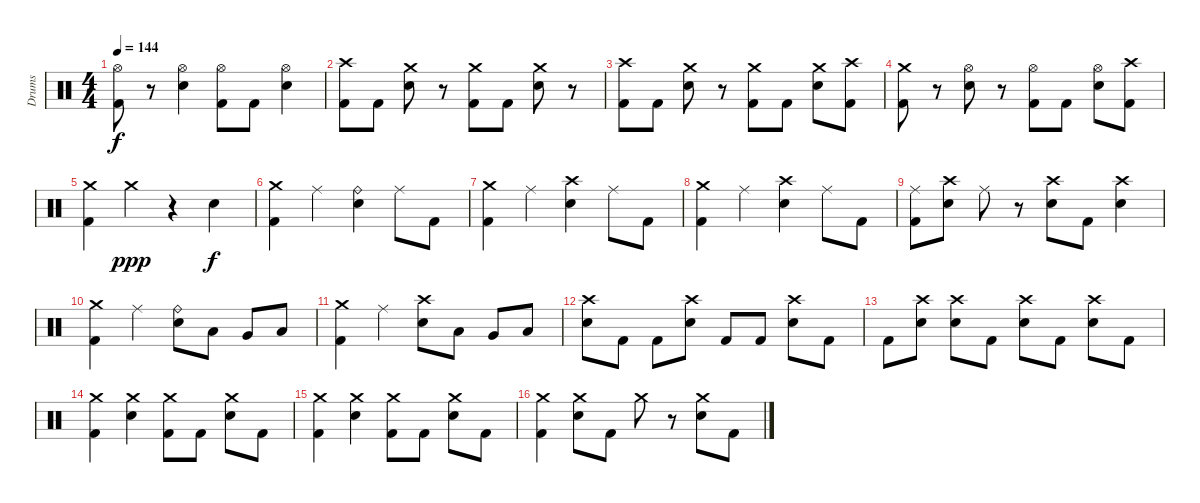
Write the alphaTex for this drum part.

\track ("Drums" "Drums") {instrument percussion}
\staff
\articulation defaults
\ts (4 4)
\tempo 144
\clef neutral
\ks c
("Hi-Hat (open)" "Kick (hit) 2").8{dy f} r.8 ("Hi-Hat (open)" "Electric Snare (hit)").4 ("Hi-Hat (open)" "Kick (hit) 2").8 "Kick (hit) 2".8 ("Hi-Hat (open)" "Electric Snare (hit)").4 |
("Crash high (hit)" "Kick (hit) 2").8 "Kick (hit) 2".8 ("Crash medium (hit)" "Electric Snare (hit)").8 r.8 ("Crash medium (hit)" "Kick (hit) 2").8 "Kick (hit) 2".8 ("Crash medium (hit)" "Electric Snare (hit)").8 r.8 |
("Crash high (hit)" "Kick (hit) 2").8 "Kick (hit) 2".8 ("Crash medium (hit)" "Electric Snare (hit)").8 r.8 ("Crash medium (hit)" "Kick (hit) 2").8 "Kick (hit) 2".8 ("Crash medium (hit)" "Electric Snare (hit)").8 ("Crash high (hit)" "Kick (hit) 2").8 |
("Crash medium (hit)" "Kick (hit) 2").8 r.8 ("Hi-Hat (open)" "Electric Snare (hit)").8 r.8 ("Hi-Hat (open)" "Kick (hit) 2").8 "Kick (hit) 2".8 ("Hi-Hat (open)" "Electric Snare (hit)").8 ("Crash high (hit)" "Kick (hit) 2").8 |
("Crash medium (hit)" "Kick (hit) 2").4 "Crash medium (hit)".4{dy ppp} r.4 "Electric Snare (hit)".4{dy f} |
("Crash medium (hit)" "Kick (hit) 2").4 "Ride (middle)".4 ("Ride (bell)" "Electric Snare (hit)").4 "Ride (middle)".8 "Kick (hit) 2".8 |
("Crash medium (hit)" "Kick (hit) 2").4 "Ride (middle)".4 ("Crash high (hit)" "Electric Snare (hit)").4 "Ride (middle)".8 "Kick (hit) 2".8 |
("Crash medium (hit)" "Kick (hit) 2").4 "Ride (middle)".4 ("Crash high (hit)" "Electric Snare (hit)").4 "Ride (middle)".8 "Kick (hit) 2".8 |
("Ride (middle)" "Kick (hit) 2").8 ("Crash high (hit)" "Electric Snare (hit)").8 "Ride (middle)".8 r.8 ("Crash high (hit)" "Electric Snare (hit)").8 "Kick (hit) 2".8 ("Crash high (hit)" "Electric Snare (hit)").4 |
("Crash medium (hit)" "Kick (hit) 2").4 "Ride (middle)".4 ("Ride (bell)" "Electric Snare (hit)").8 "Low Floor Tom (hit)".8 "Very Low Tom (hit)".8 "Low Floor Tom (hit)".8 |
("Crash medium (hit)" "Kick (hit) 2").4 "Ride (middle)".4 ("Crash high (hit)" "Electric Snare (hit)").8 "Low Floor Tom (hit)".8 "Very Low Tom (hit)".8 "Low Floor Tom (hit)".8 |
("Crash high (hit)" "Electric Snare (hit)").8 "Kick (hit) 2".8 "Kick (hit) 2".8 ("Crash high (hit)" "Electric Snare (hit)").8 "Kick (hit) 2".8 "Kick (hit) 2".8 ("Crash high (hit)" "Electric Snare (hit)").8 "Kick (hit) 2".8 |
"Kick (hit) 2".8 ("Crash high (hit)" "Electric Snare (hit)").8 ("Crash high (hit)" "Electric Snare (hit)").8 "Kick (hit) 2".8 ("Crash high (hit)" "Electric Snare (hit)").8 "Kick (hit) 2".8 ("Crash high (hit)" "Electric Snare (hit)").8 "Kick (hit) 2".8 |
("Crash medium (hit)" "Kick (hit) 2").4 ("Crash medium (hit)" "Electric Snare (hit)").4 ("Crash medium (hit)" "Kick (hit) 2").8 "Kick (hit) 2".8 ("Crash medium (hit)" "Electric Snare (hit)").8 "Kick (hit) 2".8 |
("Crash medium (hit)" "Kick (hit) 2").4 ("Crash medium (hit)" "Electric Snare (hit)").4 ("Crash medium (hit)" "Kick (hit) 2").8 "Kick (hit) 2".8 ("Crash medium (hit)" "Electric Snare (hit)").8 "Kick (hit) 2".8 |
("Crash medium (hit)" "Kick (hit) 2").4 ("Crash medium (hit)" "Electric Snare (hit)").8 "Kick (hit) 2".8 "Crash medium (hit)".8 r.8 ("Crash medium (hit)" "Electric Snare (hit)").8 "Kick (hit) 2".8
